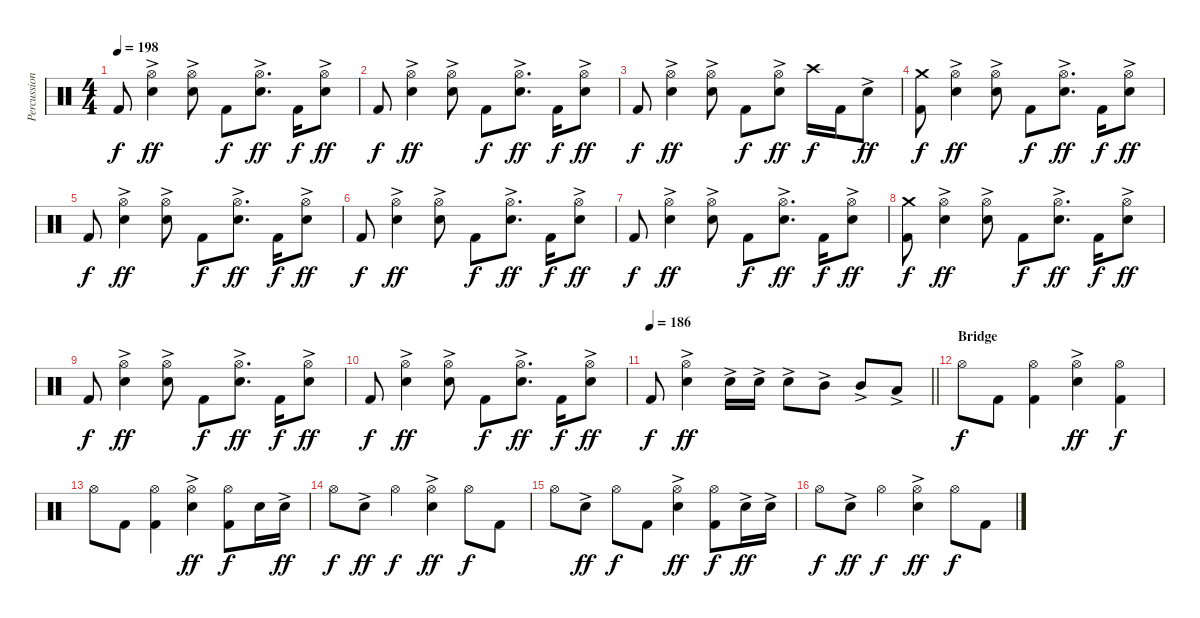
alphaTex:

\track ("Percussion" "Percussion") {instrument percussion}
\staff {score}
\articulation defaults
\ts (4 4)
\tempo 198
\clef neutral
\ks c "Kick (hit) 2".8{dy f}
("Hi-Hat (open)" "Electric Snare (hit)"{ac}).4{dy ff} ("Hi-Hat (open)" "Electric Snare (hit)"{ac}).8 "Kick (hit) 2".8{dy f} ("Hi-Hat (open)" "Electric Snare (hit)"{ac}).8{d dy ff} "Kick (hit) 2".16{dy f} ("Hi-Hat (open)" "Electric Snare (hit)"{ac}).8{dy ff} |
"Kick (hit) 2".8{dy f} ("Hi-Hat (open)" "Electric Snare (hit)"{ac}).4{dy ff} ("Hi-Hat (open)" "Electric Snare (hit)"{ac}).8 "Kick (hit) 2".8{dy f} ("Hi-Hat (open)" "Electric Snare (hit)"{ac}).8{d dy ff} "Kick (hit) 2".16{dy f} ("Hi-Hat (open)" "Electric Snare (hit)"{ac}).8{dy ff} |
"Kick (hit) 2".8{dy f} ("Hi-Hat (open)" "Electric Snare (hit)"{ac}).4{dy ff} ("Hi-Hat (open)" "Electric Snare (hit)"{ac}).8 "Kick (hit) 2".8{dy f} ("Hi-Hat (open)" "Electric Snare (hit)"{ac}).8{dy ff} "Crash high (hit)".16{dy f} "Kick (hit) 2".16 "Electric Snare (hit)"{ac}.8{dy ff} |
("Crash medium (hit)" "Kick (hit) 2").8{dy f} ("Hi-Hat (open)" "Electric Snare (hit)"{ac}).4{dy ff} ("Hi-Hat (open)" "Electric Snare (hit)"{ac}).8 "Kick (hit) 2".8{dy f} ("Hi-Hat (open)" "Electric Snare (hit)"{ac}).8{d dy ff} "Kick (hit) 2".16{dy f} ("Hi-Hat (open)" "Electric Snare (hit)"{ac}).8{dy ff} |
"Kick (hit) 2".8{dy f} ("Hi-Hat (open)" "Electric Snare (hit)"{ac}).4{dy ff} ("Hi-Hat (open)" "Electric Snare (hit)"{ac}).8 "Kick (hit) 2".8{dy f} ("Hi-Hat (open)" "Electric Snare (hit)"{ac}).8{d dy ff} "Kick (hit) 2".16{dy f} ("Hi-Hat (open)" "Electric Snare (hit)"{ac}).8{dy ff} |
"Kick (hit) 2".8{dy f} ("Hi-Hat (open)" "Electric Snare (hit)"{ac}).4{dy ff} ("Hi-Hat (open)" "Electric Snare (hit)"{ac}).8 "Kick (hit) 2".8{dy f} ("Hi-Hat (open)" "Electric Snare (hit)"{ac}).8{d dy ff} "Kick (hit) 2".16{dy f} ("Hi-Hat (open)" "Electric Snare (hit)"{ac}).8{dy ff} |
"Kick (hit) 2".8{dy f} ("Hi-Hat (open)" "Electric Snare (hit)"{ac}).4{dy ff} ("Hi-Hat (open)" "Electric Snare (hit)"{ac}).8 "Kick (hit) 2".8{dy f} ("Hi-Hat (open)" "Electric Snare (hit)"{ac}).8{d dy ff} "Kick (hit) 2".16{dy f} ("Hi-Hat (open)" "Electric Snare (hit)"{ac}).8{dy ff} |
("Crash medium (hit)" "Kick (hit) 2").8{dy f} ("Hi-Hat (open)" "Electric Snare (hit)"{ac}).4{dy ff} ("Hi-Hat (open)" "Electric Snare (hit)"{ac}).8 "Kick (hit) 2".8{dy f} ("Hi-Hat (open)" "Electric Snare (hit)"{ac}).8{d dy ff} "Kick (hit) 2".16{dy f} ("Hi-Hat (open)" "Electric Snare (hit)"{ac}).8{dy ff} |
"Kick (hit) 2".8{dy f} ("Hi-Hat (open)" "Electric Snare (hit)"{ac}).4{dy ff} ("Hi-Hat (open)" "Electric Snare (hit)"{ac}).8 "Kick (hit) 2".8{dy f} ("Hi-Hat (open)" "Electric Snare (hit)"{ac}).8{d dy ff} "Kick (hit) 2".16{dy f} ("Hi-Hat (open)" "Electric Snare (hit)"{ac}).8{dy ff} |
"Kick (hit) 2".8{dy f} ("Hi-Hat (open)" "Electric Snare (hit)"{ac}).4{dy ff} ("Hi-Hat (open)" "Electric Snare (hit)"{ac}).8 "Kick (hit) 2".8{dy f} ("Hi-Hat (open)" "Electric Snare (hit)"{ac}).8{d dy ff} "Kick (hit) 2".16{dy f} ("Hi-Hat (open)" "Electric Snare (hit)"{ac}).8{dy ff} |
\tempo 186
\barLineRight lightlight "Kick (hit) 2".8{dy f}
("Hi-Hat (open)" "Electric Snare (hit)"{ac}).4{dy ff} "Electric Snare (hit)"{ac}.16 "Electric Snare (hit)"{ac}.16 "Electric Snare (hit)"{ac}.8 "Mid Tom (hit)"{ac}.8 "Mid Tom (hit)"{ac}.8 "Low Tom (hit)"{ac}.8 |
\section ("" "Bridge")
"Hi-Hat (open)".8{dy f} "Kick (hit) 2".8 ("Hi-Hat (open)" "Kick (hit) 2").4 ("Hi-Hat (open)" "Electric Snare (hit)"{ac}).4{dy ff} ("Hi-Hat (open)" "Kick (hit) 2").4{dy f} |
"Hi-Hat (open)".8 "Kick (hit) 2".8 ("Hi-Hat (open)" "Kick (hit) 2").4 ("Hi-Hat (open)" "Electric Snare (hit)"{ac}).4{dy ff} ("Hi-Hat (open)" "Kick (hit) 2").8{dy f} "Electric Snare (hit)".16 "Electric Snare (hit)"{ac}.16{dy ff} |
"Hi-Hat (open)".8{dy f} "Electric Snare (hit)"{ac}.8{dy ff} "Hi-Hat (open)".4{dy f} ("Hi-Hat (open)" "Electric Snare (hit)"{ac}).4{dy ff} "Hi-Hat (open)".8{dy f} "Kick (hit) 2".8 |
"Hi-Hat (open)".8 "Electric Snare (hit)"{ac}.8{dy ff} "Hi-Hat (open)".8{dy f} "Kick (hit) 2".8 ("Hi-Hat (open)" "Electric Snare (hit)"{ac}).4{dy ff} ("Hi-Hat (open)" "Kick (hit) 2").8{dy f} "Electric Snare (hit)"{ac}.16{dy ff} "Electric Snare (hit)"{ac}.16 |
"Hi-Hat (open)".8{dy f} "Electric Snare (hit)"{ac}.8{dy ff} "Hi-Hat (open)".4{dy f} ("Hi-Hat (open)" "Electric Snare (hit)"{ac}).4{dy ff} "Hi-Hat (open)".8{dy f} "Kick (hit) 2".8
